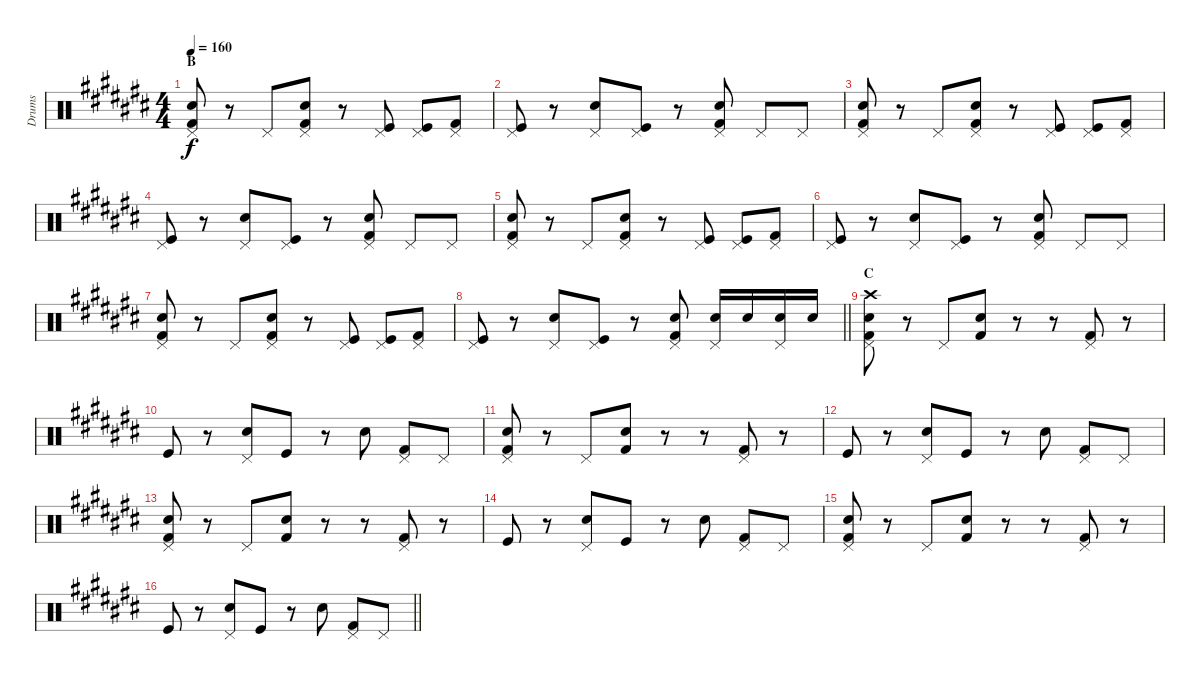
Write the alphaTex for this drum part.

\track ("Drums" "Drums") {instrument percussion}
\staff {score}
\articulation defaults
\ts (4 4)
\section ("" "B")
\tempo 160
\clef neutral
\ks c#
("Pedal Hi-Hat (hit)" "Electric Snare (hit)" "Kick (hit) 2").8{dy f} r.8 "Pedal Hi-Hat (hit)".8 ("Pedal Hi-Hat (hit)" "Electric Snare (hit)" "Kick (hit) 2").8 r.8 ("Pedal Hi-Hat (hit)" "Kick (hit)").8 ("Pedal Hi-Hat (hit)" "Kick (hit)").8 ("Pedal Hi-Hat (hit)" "Kick (hit) 2").8 |
("Pedal Hi-Hat (hit)" "Kick (hit)").8 r.8 ("Pedal Hi-Hat (hit)" "Electric Snare (hit)").8 ("Pedal Hi-Hat (hit)" "Kick (hit)").8 r.8 ("Pedal Hi-Hat (hit)" "Electric Snare (hit)" "Kick (hit) 2").8 "Pedal Hi-Hat (hit)".8 "Pedal Hi-Hat (hit)".8 |
("Pedal Hi-Hat (hit)" "Electric Snare (hit)" "Kick (hit) 2").8 r.8 "Pedal Hi-Hat (hit)".8 ("Pedal Hi-Hat (hit)" "Electric Snare (hit)" "Kick (hit) 2").8 r.8 ("Pedal Hi-Hat (hit)" "Kick (hit)").8 ("Pedal Hi-Hat (hit)" "Kick (hit)").8 ("Pedal Hi-Hat (hit)" "Kick (hit) 2").8 |
("Pedal Hi-Hat (hit)" "Kick (hit)").8 r.8 ("Pedal Hi-Hat (hit)" "Electric Snare (hit)").8 ("Pedal Hi-Hat (hit)" "Kick (hit)").8 r.8 ("Pedal Hi-Hat (hit)" "Electric Snare (hit)" "Kick (hit) 2").8 "Pedal Hi-Hat (hit)".8 "Pedal Hi-Hat (hit)".8 |
("Pedal Hi-Hat (hit)" "Electric Snare (hit)" "Kick (hit) 2").8 r.8 "Pedal Hi-Hat (hit)".8 ("Pedal Hi-Hat (hit)" "Electric Snare (hit)" "Kick (hit) 2").8 r.8 ("Pedal Hi-Hat (hit)" "Kick (hit)").8 ("Pedal Hi-Hat (hit)" "Kick (hit)").8 ("Pedal Hi-Hat (hit)" "Kick (hit) 2").8 |
("Pedal Hi-Hat (hit)" "Kick (hit)").8 r.8 ("Pedal Hi-Hat (hit)" "Electric Snare (hit)").8 ("Pedal Hi-Hat (hit)" "Kick (hit)").8 r.8 ("Pedal Hi-Hat (hit)" "Electric Snare (hit)" "Kick (hit) 2").8 "Pedal Hi-Hat (hit)".8 "Pedal Hi-Hat (hit)".8 |
("Pedal Hi-Hat (hit)" "Electric Snare (hit)" "Kick (hit) 2").8 r.8 "Pedal Hi-Hat (hit)".8 ("Pedal Hi-Hat (hit)" "Electric Snare (hit)" "Kick (hit) 2").8 r.8 ("Pedal Hi-Hat (hit)" "Kick (hit)").8 ("Pedal Hi-Hat (hit)" "Kick (hit)").8 ("Pedal Hi-Hat (hit)" "Kick (hit) 2").8 |
\barLineRight lightlight
("Pedal Hi-Hat (hit)" "Kick (hit)").8 r.8 ("Pedal Hi-Hat (hit)" "Electric Snare (hit)").8 ("Pedal Hi-Hat (hit)" "Kick (hit)").8 r.8 ("Pedal Hi-Hat (hit)" "Electric Snare (hit)" "Kick (hit) 2").8 ("Pedal Hi-Hat (hit)" "Electric Snare (hit)").16 "Electric Snare (hit)".16 ("Pedal Hi-Hat (hit)" "Electric Snare (hit)").16 "Electric Snare (hit)".16 |
\section ("" "C")
("Pedal Hi-Hat (hit)" "Crash high (hit)" "Electric Snare (hit)" "Kick (hit) 2").8 r.8 "Pedal Hi-Hat (hit)".8 ("Electric Snare (hit)" "Kick (hit) 2").8 r.8 r.8 ("Pedal Hi-Hat (hit)" "Kick (hit) 2").8 r.8 |
"Kick (hit)".8 r.8 ("Pedal Hi-Hat (hit)" "Electric Snare (hit)").8 "Kick (hit)".8 r.8 "Electric Snare (hit)".8 ("Pedal Hi-Hat (hit)" "Kick (hit) 2").8 "Pedal Hi-Hat (hit)".8 |
("Pedal Hi-Hat (hit)" "Electric Snare (hit)" "Kick (hit) 2").8 r.8 "Pedal Hi-Hat (hit)".8 ("Electric Snare (hit)" "Kick (hit) 2").8 r.8 r.8 ("Pedal Hi-Hat (hit)" "Kick (hit) 2").8 r.8 |
"Kick (hit)".8 r.8 ("Pedal Hi-Hat (hit)" "Electric Snare (hit)").8 "Kick (hit)".8 r.8 "Electric Snare (hit)".8 ("Pedal Hi-Hat (hit)" "Kick (hit) 2").8 "Pedal Hi-Hat (hit)".8 |
("Pedal Hi-Hat (hit)" "Electric Snare (hit)" "Kick (hit) 2").8 r.8 "Pedal Hi-Hat (hit)".8 ("Electric Snare (hit)" "Kick (hit) 2").8 r.8 r.8 ("Pedal Hi-Hat (hit)" "Kick (hit) 2").8 r.8 |
"Kick (hit)".8 r.8 ("Pedal Hi-Hat (hit)" "Electric Snare (hit)").8 "Kick (hit)".8 r.8 "Electric Snare (hit)".8 ("Pedal Hi-Hat (hit)" "Kick (hit) 2").8 "Pedal Hi-Hat (hit)".8 |
("Pedal Hi-Hat (hit)" "Electric Snare (hit)" "Kick (hit) 2").8 r.8 "Pedal Hi-Hat (hit)".8 ("Electric Snare (hit)" "Kick (hit) 2").8 r.8 r.8 ("Pedal Hi-Hat (hit)" "Kick (hit) 2").8 r.8 |
\barLineRight lightlight "Kick (hit)".8
r.8 ("Pedal Hi-Hat (hit)" "Electric Snare (hit)").8 "Kick (hit)".8 r.8 "Electric Snare (hit)".8 ("Pedal Hi-Hat (hit)" "Kick (hit) 2").8 "Pedal Hi-Hat (hit)".8
